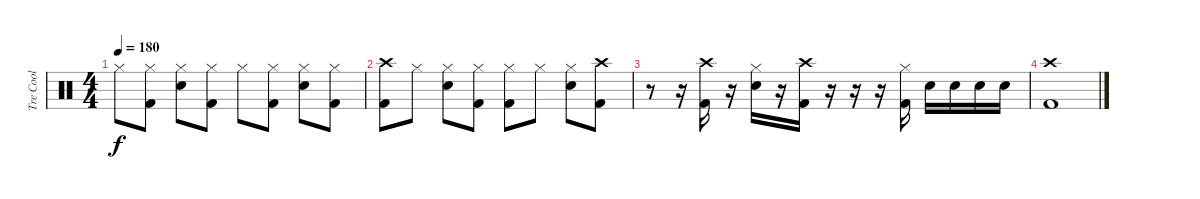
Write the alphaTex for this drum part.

\track ("Tre Cool" "Tre Cool") {instrument percussion}
\staff {score}
\articulation defaults
\ts (4 4)
\tempo 180
\clef neutral
\ks c "Hi-Hat (closed)".8{dy f}
("Hi-Hat (closed)" "Kick (hit) 2").8 ("Hi-Hat (closed)" "Electric Snare (hit)").8 ("Hi-Hat (closed)" "Kick (hit) 2").8 "Hi-Hat (closed)".8 ("Hi-Hat (closed)" "Kick (hit) 2").8 ("Hi-Hat (closed)" "Electric Snare (hit)").8 ("Hi-Hat (closed)" "Kick (hit) 2").8 |
("Crash high (hit)" "Kick (hit) 2").8 "Hi-Hat (closed)".8 ("Hi-Hat (closed)" "Electric Snare (hit)").8 ("Hi-Hat (closed)" "Kick (hit) 2").8 ("Hi-Hat (closed)" "Kick (hit) 2").8 "Hi-Hat (closed)".8 ("Hi-Hat (closed)" "Electric Snare (hit)").8 ("Crash high (hit)" "Kick (hit) 2").8 |
r.8 r.16 ("Crash high (hit)" "Kick (hit) 2").16 r.16 ("Hi-Hat (closed)" "Electric Snare (hit)").16 r.16 ("Crash high (hit)" "Kick (hit) 2").16 r.16 r.16 r.16 ("Hi-Hat (closed)" "Kick (hit) 2").16 "Electric Snare (hit)".16 "Electric Snare (hit)".16 "Electric Snare (hit)".16 "Electric Snare (hit)".16 |
("Crash high (hit)" "Kick (hit) 2").1
